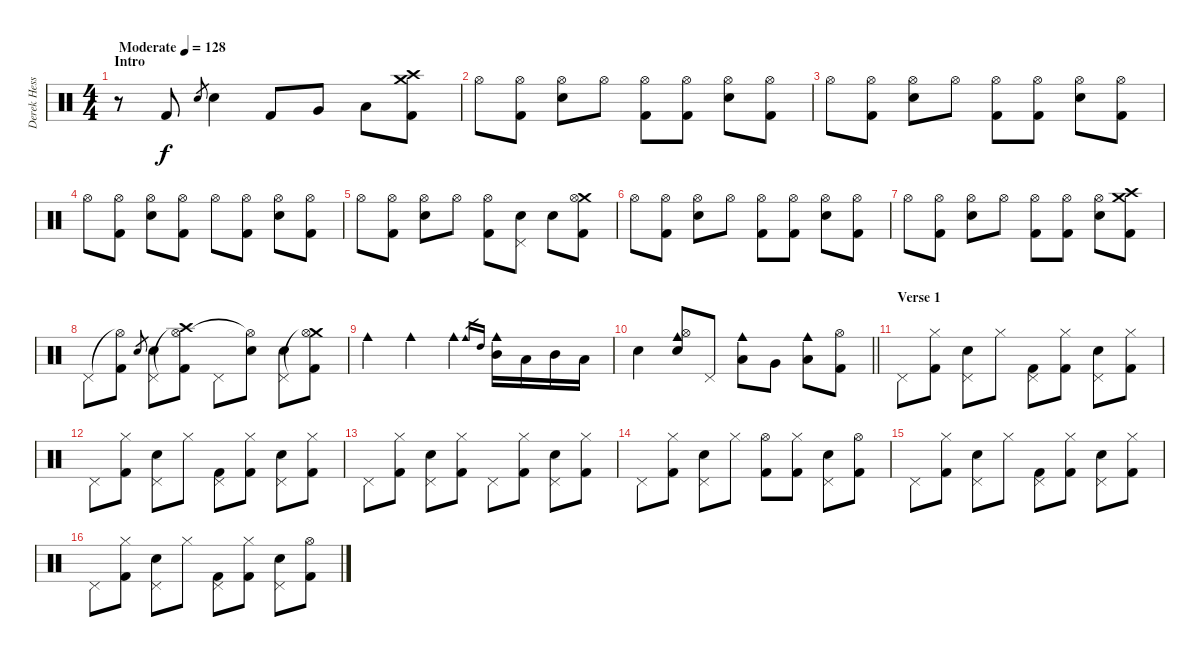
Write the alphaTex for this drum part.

\track ("Derek Hess (Drums and Percussion)" "Derek Hess") {instrument percussion}
\staff {score}
\articulation defaults
\ts (4 4)
\section ("" "Intro")
\tempo (128 "Moderate")
\clef neutral
\ks c
r.8{dy f} "Kick (hit) 2".8 "Snare (hit) 2".8{gr} "Snare (hit) 2".4 "Kick (hit) 2".8 "Very Low Tom (hit)".8 "Low Tom (hit)".8 ("Crash medium (hit)" "Crash high (hit)" "Kick (hit) 2").8 |
"Hi-Hat (open)".8 ("Hi-Hat (open)" "Kick (hit) 2").8 ("Snare (hit) 2" "Hi-Hat (open)").8 "Hi-Hat (open)".8 ("Hi-Hat (open)" "Kick (hit) 2").8 ("Hi-Hat (open)" "Kick (hit) 2").8 ("Snare (hit) 2" "Hi-Hat (open)").8 ("Hi-Hat (open)" "Kick (hit) 2").8 |
"Hi-Hat (open)".8 ("Hi-Hat (open)" "Kick (hit) 2").8 ("Snare (hit) 2" "Hi-Hat (open)").8 "Hi-Hat (open)".8 ("Hi-Hat (open)" "Kick (hit) 2").8 ("Hi-Hat (open)" "Kick (hit) 2").8 ("Snare (hit) 2" "Hi-Hat (open)").8 ("Hi-Hat (open)" "Kick (hit) 2").8 |
"Hi-Hat (open)".8 ("Hi-Hat (open)" "Kick (hit) 2").8 ("Snare (hit) 2" "Hi-Hat (open)").8 ("Hi-Hat (open)" "Kick (hit) 2").8 "Hi-Hat (open)".8 ("Hi-Hat (open)" "Kick (hit) 2").8 ("Snare (hit) 2" "Hi-Hat (open)").8 ("Hi-Hat (open)" "Kick (hit) 2").8 |
"Hi-Hat (open)".8 ("Hi-Hat (open)" "Kick (hit) 2").8 ("Snare (hit) 2" "Hi-Hat (open)").8 "Hi-Hat (open)".8 ("Hi-Hat (open)" "Kick (hit) 2").8 ("Snare (hit) 2" "Pedal Hi-Hat (hit)").8 "Snare (hit) 2".8 ("Crash medium (hit)" "Hi-Hat (open)" "Kick (hit) 2").8 |
"Hi-Hat (open)".8 ("Hi-Hat (open)" "Kick (hit) 2").8 ("Snare (hit) 2" "Hi-Hat (open)").8 "Hi-Hat (open)".8 ("Hi-Hat (open)" "Kick (hit) 2").8 ("Hi-Hat (open)" "Kick (hit) 2").8 ("Snare (hit) 2" "Hi-Hat (open)").8 ("Hi-Hat (open)" "Kick (hit) 2").8 |
"Hi-Hat (open)".8 ("Hi-Hat (open)" "Kick (hit) 2").8 ("Snare (hit) 2" "Hi-Hat (open)").8 "Hi-Hat (open)".8 ("Hi-Hat (open)" "Kick (hit) 2").8 ("Hi-Hat (open)" "Kick (hit) 2").8 ("Snare (hit) 2" "Hi-Hat (open)").8 ("Crash medium (hit)" "Crash high (hit)" "Kick (hit) 2").8 |
"Pedal Hi-Hat (hit)".8 ("Hi-Hat (open)"{t} "Kick (hit) 2").8 "Snare (hit) 2".8{gr} ("Snare (hit) 2" "Pedal Hi-Hat (hit)").8 ("Crash high (hit)" "Hi-Hat (open)"{t} "Kick (hit) 2").8 "Pedal Hi-Hat (hit)".8 ("Snare (hit) 2" "Hi-Hat (open)"{t}).8 ("Snare (hit) 2" "Pedal Hi-Hat (hit)").8 ("Crash medium (hit)" "Hi-Hat (open)"{t} "Kick (hit) 2").8 |
"Cowbell medium (hit)".4 "Cowbell medium (hit)".4 "Cowbell medium (hit)".4 "Cowbell medium (hit)".16{gr} "High Tom (hit)".16{gr} ("Cowbell medium (hit)" "Mid Tom (hit)").16 "Low Tom (hit)".16 "Mid Tom (hit)".16 "Low Tom (hit)".16 |
\barLineRight lightlight "Snare (hit) 2".4
("Cowbell medium (hit)" "Snare (hit) 2" "Hi-Hat (open)").8 "Pedal Hi-Hat (hit)".8 ("Cowbell medium (hit)" "Low Floor Tom (hit)").8 "Very Low Tom (hit)".8 ("Cowbell medium (hit)" "Low Tom (hit)").8 ("Hi-Hat (open)" "Kick (hit) 2").8 |
\section ("" "Verse 1")
"Pedal Hi-Hat (hit)".8 ("Hi-Hat (closed)" "Kick (hit) 2").8 ("Snare (hit) 2" "Pedal Hi-Hat (hit)").8 "Hi-Hat (closed)".8 ("Pedal Hi-Hat (hit)" "Kick (hit) 2").8 ("Hi-Hat (closed)" "Kick (hit) 2").8 ("Snare (hit) 2" "Pedal Hi-Hat (hit)").8 ("Hi-Hat (closed)" "Kick (hit) 2").8 |
"Pedal Hi-Hat (hit)".8 ("Hi-Hat (closed)" "Kick (hit) 2").8 ("Snare (hit) 2" "Pedal Hi-Hat (hit)").8 "Hi-Hat (closed)".8 ("Pedal Hi-Hat (hit)" "Kick (hit) 2").8 ("Hi-Hat (closed)" "Kick (hit) 2").8 ("Snare (hit) 2" "Pedal Hi-Hat (hit)").8 ("Hi-Hat (closed)" "Kick (hit) 2").8 |
"Pedal Hi-Hat (hit)".8 ("Hi-Hat (closed)" "Kick (hit) 2").8 ("Snare (hit) 2" "Pedal Hi-Hat (hit)").8 ("Hi-Hat (closed)" "Kick (hit) 2").8 "Pedal Hi-Hat (hit)".8 ("Hi-Hat (closed)" "Kick (hit) 2").8 ("Snare (hit) 2" "Pedal Hi-Hat (hit)").8 ("Hi-Hat (closed)" "Kick (hit) 2").8 |
"Pedal Hi-Hat (hit)".8 ("Hi-Hat (closed)" "Kick (hit) 2").8 ("Snare (hit) 2" "Pedal Hi-Hat (hit)").8 "Hi-Hat (closed)".8 ("Hi-Hat (open)" "Kick (hit) 2").8 ("Hi-Hat (closed)" "Kick (hit) 2").8 ("Snare (hit) 2" "Pedal Hi-Hat (hit)").8 ("Hi-Hat (open)" "Kick (hit) 2").8 |
"Pedal Hi-Hat (hit)".8 ("Hi-Hat (closed)" "Kick (hit) 2").8 ("Snare (hit) 2" "Pedal Hi-Hat (hit)").8 "Hi-Hat (closed)".8 ("Pedal Hi-Hat (hit)" "Kick (hit) 2").8 ("Hi-Hat (closed)" "Kick (hit) 2").8 ("Snare (hit) 2" "Pedal Hi-Hat (hit)").8 ("Hi-Hat (closed)" "Kick (hit) 2").8 |
"Pedal Hi-Hat (hit)".8 ("Hi-Hat (closed)" "Kick (hit) 2").8 ("Snare (hit) 2" "Pedal Hi-Hat (hit)").8 "Hi-Hat (closed)".8 ("Pedal Hi-Hat (hit)" "Kick (hit) 2").8 ("Hi-Hat (closed)" "Kick (hit) 2").8 ("Snare (hit) 2" "Pedal Hi-Hat (hit)").8 ("Hi-Hat (open)" "Kick (hit) 2").8
